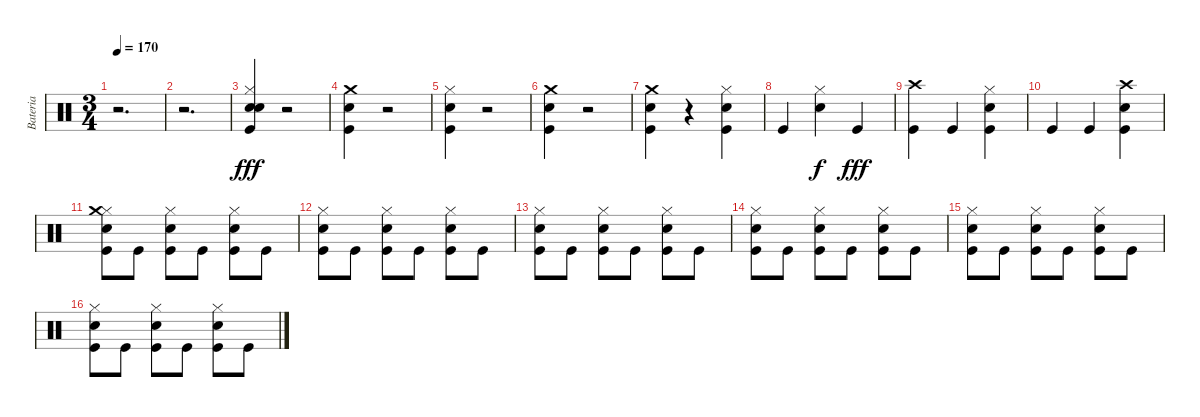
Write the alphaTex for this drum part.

\track ("Bateria" "Bateria") {instrument percussion}
\staff {score}
\articulation defaults
\ts (3 4)
\tempo 170
\clef neutral
\ks c
r.2{d dy fff} |
r.2{d} |
("Kick (hit)" "Snare (hit) 2" "Hi-Hat (closed)" "Electric Snare (hit)").4 r.2 |
("Kick (hit)" "Snare (hit) 2" "Crash medium (hit)").4 r.2 |
("Hi-Hat (closed)" "Snare (hit) 2" "Kick (hit)").4 r.2 |
("Kick (hit)" "Snare (hit) 2" "Crash medium (hit)").4 r.2 |
("Crash medium (hit)" "Kick (hit)" "Snare (hit) 2").4 r.4 ("Snare (hit) 2" "Kick (hit)" "Hi-Hat (closed)").4 |
"Kick (hit)".4 ("Snare (hit) 2" "Hi-Hat (closed)").4{dy f} "Kick (hit)".4{dy fff} |
("Kick (hit)" "Crash high (hit)").4 "Kick (hit)".4 ("Kick (hit)" "Snare (hit) 2" "Hi-Hat (closed)").4 |
"Kick (hit)".4 "Kick (hit)".4 ("Kick (hit)" "Snare (hit) 2" "Crash high (hit)").4 |
("Kick (hit)" "Snare (hit) 2" "Hi-Hat (closed)" "Crash medium (hit)").8 "Kick (hit)".8 ("Kick (hit)" "Snare (hit) 2" "Hi-Hat (closed)").8 "Kick (hit)".8 ("Kick (hit)" "Snare (hit) 2" "Hi-Hat (closed)").8 "Kick (hit)".8 |
("Kick (hit)" "Snare (hit) 2" "Hi-Hat (closed)").8 "Kick (hit)".8 ("Kick (hit)" "Snare (hit) 2" "Hi-Hat (closed)").8 "Kick (hit)".8 ("Kick (hit)" "Snare (hit) 2" "Hi-Hat (closed)").8 "Kick (hit)".8 |
("Kick (hit)" "Snare (hit) 2" "Hi-Hat (closed)").8 "Kick (hit)".8 ("Kick (hit)" "Snare (hit) 2" "Hi-Hat (closed)").8 "Kick (hit)".8 ("Kick (hit)" "Snare (hit) 2" "Hi-Hat (closed)").8 "Kick (hit)".8 |
("Kick (hit)" "Snare (hit) 2" "Hi-Hat (closed)").8 "Kick (hit)".8 ("Kick (hit)" "Snare (hit) 2" "Hi-Hat (closed)").8 "Kick (hit)".8 ("Kick (hit)" "Snare (hit) 2" "Hi-Hat (closed)").8 "Kick (hit)".8 |
("Kick (hit)" "Snare (hit) 2" "Hi-Hat (closed)").8 "Kick (hit)".8 ("Kick (hit)" "Snare (hit) 2" "Hi-Hat (closed)").8 "Kick (hit)".8 ("Kick (hit)" "Snare (hit) 2" "Hi-Hat (closed)").8 "Kick (hit)".8 |
("Kick (hit)" "Snare (hit) 2" "Hi-Hat (closed)").8 "Kick (hit)".8 ("Kick (hit)" "Snare (hit) 2" "Hi-Hat (closed)").8 "Kick (hit)".8 ("Kick (hit)" "Snare (hit) 2" "Hi-Hat (closed)").8 "Kick (hit)".8
